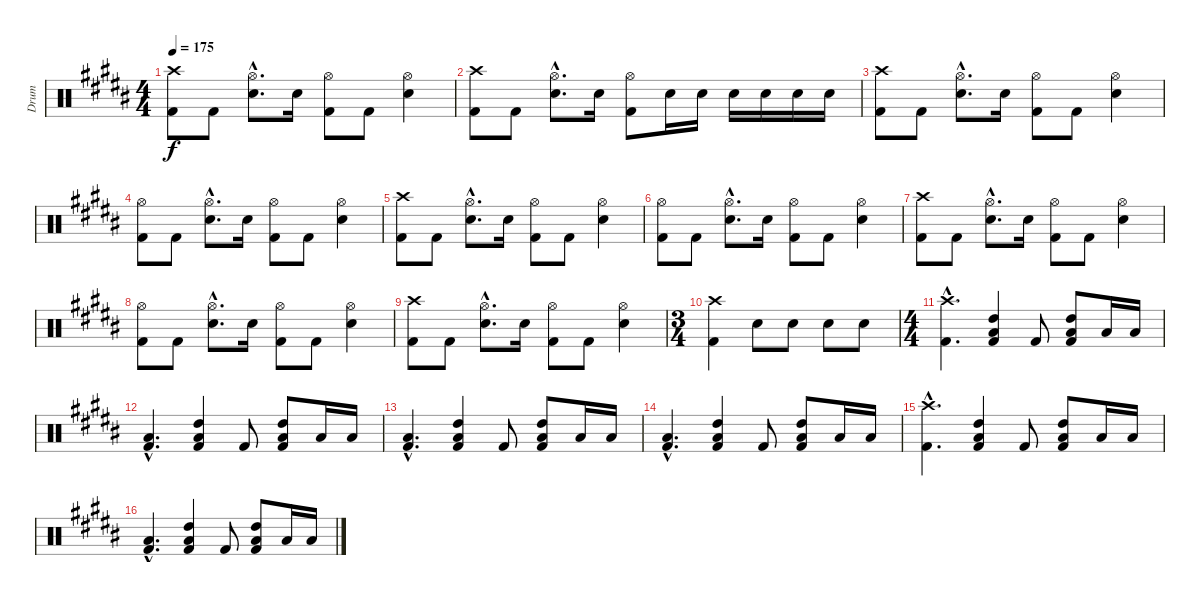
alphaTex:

\track ("Drum" "Drum") {instrument percussion}
\staff {score}
\articulation defaults
\ts (4 4)
\tempo 175
\clef neutral
\ks b
("Crash high (hit)" "Kick (hit) 2").8{dy f} "Kick (hit) 2".8 ("Hi-Hat (open)"{hac} "Snare (hit) 2"{hac}).8{d} "Snare (hit) 2".16 ("Hi-Hat (open)" "Kick (hit) 2").8 "Kick (hit) 2".8 ("Hi-Hat (open)" "Snare (hit) 2").4 |
("Crash high (hit)" "Kick (hit) 2").8 "Kick (hit) 2".8 ("Hi-Hat (open)"{hac} "Snare (hit) 2"{hac}).8{d} "Snare (hit) 2".16 ("Hi-Hat (open)" "Kick (hit) 2").8 "Snare (hit) 2".16 "Snare (hit) 2".16 "Snare (hit) 2".16 "Snare (hit) 2".16 "Snare (hit) 2".16 "Snare (hit) 2".16 |
("Crash high (hit)" "Kick (hit) 2").8 "Kick (hit) 2".8 ("Hi-Hat (open)"{hac} "Snare (hit) 2"{hac}).8{d} "Snare (hit) 2".16 ("Hi-Hat (open)" "Kick (hit) 2").8 "Kick (hit) 2".8 ("Hi-Hat (open)" "Snare (hit) 2").4 |
("Hi-Hat (open)" "Kick (hit) 2").8 "Kick (hit) 2".8 ("Hi-Hat (open)"{hac} "Snare (hit) 2"{hac}).8{d} "Snare (hit) 2".16 ("Hi-Hat (open)" "Kick (hit) 2").8 "Kick (hit) 2".8 ("Hi-Hat (open)" "Snare (hit) 2").4 |
("Crash high (hit)" "Kick (hit) 2").8 "Kick (hit) 2".8 ("Hi-Hat (open)"{hac} "Snare (hit) 2"{hac}).8{d} "Snare (hit) 2".16 ("Hi-Hat (open)" "Kick (hit) 2").8 "Kick (hit) 2".8 ("Hi-Hat (open)" "Snare (hit) 2").4 |
("Hi-Hat (open)" "Kick (hit) 2").8 "Kick (hit) 2".8 ("Hi-Hat (open)"{hac} "Snare (hit) 2"{hac}).8{d} "Snare (hit) 2".16 ("Hi-Hat (open)" "Kick (hit) 2").8 "Kick (hit) 2".8 ("Hi-Hat (open)" "Snare (hit) 2").4 |
("Crash high (hit)" "Kick (hit) 2").8 "Kick (hit) 2".8 ("Hi-Hat (open)"{hac} "Snare (hit) 2"{hac}).8{d} "Snare (hit) 2".16 ("Hi-Hat (open)" "Kick (hit) 2").8 "Kick (hit) 2".8 ("Hi-Hat (open)" "Snare (hit) 2").4 |
("Hi-Hat (open)" "Kick (hit) 2").8 "Kick (hit) 2".8 ("Hi-Hat (open)"{hac} "Snare (hit) 2"{hac}).8{d} "Snare (hit) 2".16 ("Hi-Hat (open)" "Kick (hit) 2").8 "Kick (hit) 2".8 ("Hi-Hat (open)" "Snare (hit) 2").4 |
("Crash high (hit)" "Kick (hit) 2").8 "Kick (hit) 2".8 ("Hi-Hat (open)"{hac} "Snare (hit) 2"{hac}).8{d} "Snare (hit) 2".16 ("Hi-Hat (open)" "Kick (hit) 2").8 "Kick (hit) 2".8 ("Hi-Hat (open)" "Snare (hit) 2").4 |
\ts (3 4)
("Crash high (hit)" "Kick (hit) 2").4 "Snare (hit) 2".8 "Snare (hit) 2".8 "Snare (hit) 2".8 "Snare (hit) 2".8 |
\ts (4 4)
("Crash high (hit)"{hac} "Kick (hit) 2"{hac}).4{d} ("Low Floor Tom (hit)" "Kick (hit) 2" "High Tom (hit)").4 "Kick (hit) 2".8 ("Low Floor Tom (hit)" "Kick (hit) 2" "High Tom (hit)").8 "Low Tom (hit)".16 "Low Tom (hit)".16 |
("Kick (hit) 2"{hac} "Low Tom (hit)"{hac}).4{d} ("Low Floor Tom (hit)" "Kick (hit) 2" "High Tom (hit)").4 "Kick (hit) 2".8 ("Low Floor Tom (hit)" "Kick (hit) 2" "High Tom (hit)").8 "Low Tom (hit)".16 "Low Tom (hit)".16 |
("Kick (hit) 2"{hac} "Low Tom (hit)"{hac}).4{d} ("Low Floor Tom (hit)" "Kick (hit) 2" "High Tom (hit)").4 "Kick (hit) 2".8 ("Low Floor Tom (hit)" "Kick (hit) 2" "High Tom (hit)").8 "Low Tom (hit)".16 "Low Tom (hit)".16 |
("Kick (hit) 2"{hac} "Low Tom (hit)"{hac}).4{d} ("Low Floor Tom (hit)" "Kick (hit) 2" "High Tom (hit)").4 "Kick (hit) 2".8 ("Low Floor Tom (hit)" "Kick (hit) 2" "High Tom (hit)").8 "Low Tom (hit)".16 "Low Tom (hit)".16 |
("Crash high (hit)"{hac} "Kick (hit) 2"{hac}).4{d} ("Low Floor Tom (hit)" "Kick (hit) 2" "High Tom (hit)").4 "Kick (hit) 2".8 ("Low Floor Tom (hit)" "Kick (hit) 2" "High Tom (hit)").8 "Low Tom (hit)".16 "Low Tom (hit)".16 |
("Kick (hit) 2"{hac} "Low Tom (hit)"{hac}).4{d} ("Low Floor Tom (hit)" "Kick (hit) 2" "High Tom (hit)").4 "Kick (hit) 2".8 ("Low Floor Tom (hit)" "Kick (hit) 2" "High Tom (hit)").8 "Low Tom (hit)".16 "Low Tom (hit)".16
